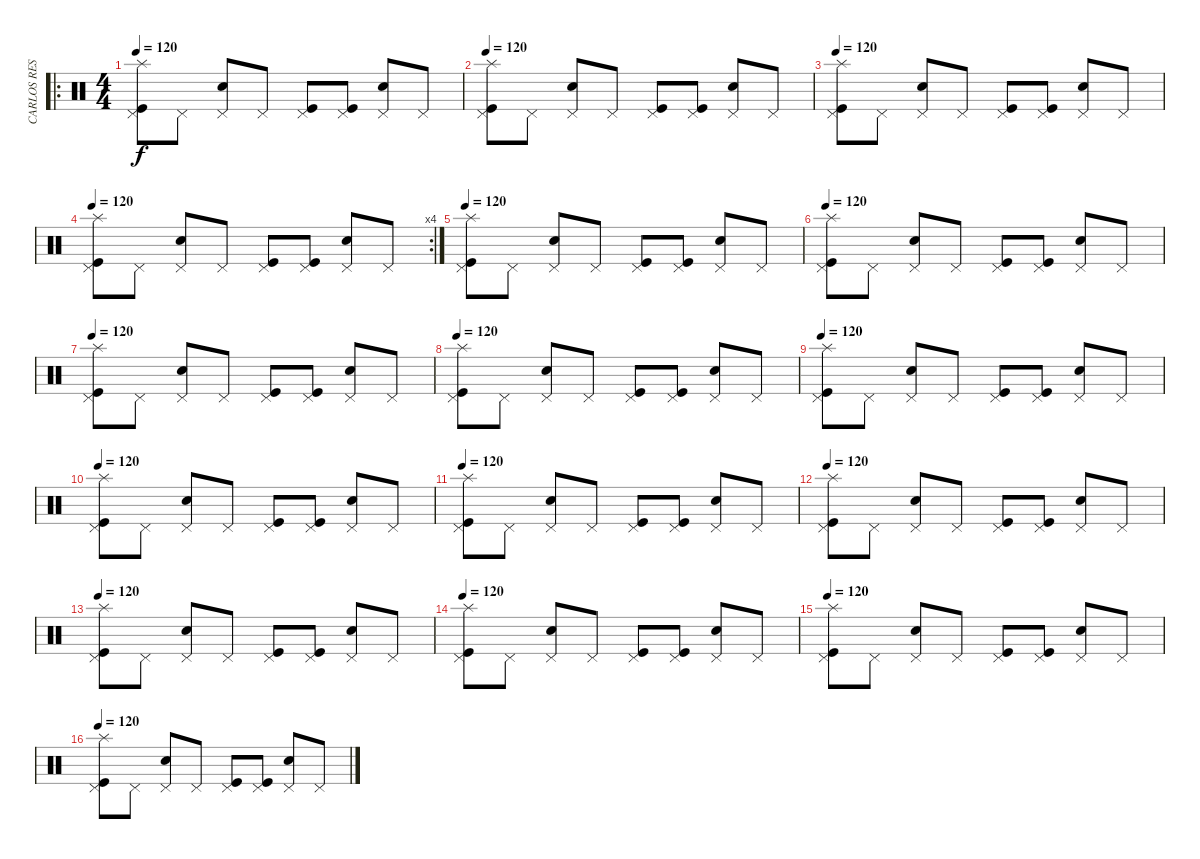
\track ("CARLOS RESTREPO DARK BATERIA" "CARLOS RES") {instrument percussion}
\staff {score}
\articulation defaults
\ro
\ts (4 4)
\tempo 120
\clef neutral
\ks c
("Pedal Hi-Hat (hit)" "Kick (hit)" "Splash (hit)").8{dy f} "Pedal Hi-Hat (hit)".8 ("Pedal Hi-Hat (hit)" "Snare (hit) 2").8 "Pedal Hi-Hat (hit)".8 ("Pedal Hi-Hat (hit)" "Kick (hit)").8 ("Pedal Hi-Hat (hit)" "Kick (hit)").8 ("Pedal Hi-Hat (hit)" "Snare (hit) 2").8 "Pedal Hi-Hat (hit)".8 |
\tempo 120
("Pedal Hi-Hat (hit)" "Kick (hit)" "Splash (hit)").8 "Pedal Hi-Hat (hit)".8 ("Pedal Hi-Hat (hit)" "Snare (hit) 2").8 "Pedal Hi-Hat (hit)".8 ("Pedal Hi-Hat (hit)" "Kick (hit)").8 ("Pedal Hi-Hat (hit)" "Kick (hit)").8 ("Pedal Hi-Hat (hit)" "Snare (hit) 2").8 "Pedal Hi-Hat (hit)".8 |
\tempo 120
("Pedal Hi-Hat (hit)" "Kick (hit)" "Splash (hit)").8 "Pedal Hi-Hat (hit)".8 ("Pedal Hi-Hat (hit)" "Snare (hit) 2").8 "Pedal Hi-Hat (hit)".8 ("Pedal Hi-Hat (hit)" "Kick (hit)").8 ("Pedal Hi-Hat (hit)" "Kick (hit)").8 ("Pedal Hi-Hat (hit)" "Snare (hit) 2").8 "Pedal Hi-Hat (hit)".8 |
\rc 4
\tempo 120
("Pedal Hi-Hat (hit)" "Kick (hit)" "Splash (hit)").8 "Pedal Hi-Hat (hit)".8 ("Pedal Hi-Hat (hit)" "Snare (hit) 2").8 "Pedal Hi-Hat (hit)".8 ("Pedal Hi-Hat (hit)" "Kick (hit)").8 ("Pedal Hi-Hat (hit)" "Kick (hit)").8 ("Pedal Hi-Hat (hit)" "Snare (hit) 2").8 "Pedal Hi-Hat (hit)".8 |
\tempo 120
("Pedal Hi-Hat (hit)" "Kick (hit)" "Splash (hit)").8 "Pedal Hi-Hat (hit)".8 ("Pedal Hi-Hat (hit)" "Snare (hit) 2").8 "Pedal Hi-Hat (hit)".8 ("Pedal Hi-Hat (hit)" "Kick (hit)").8 ("Pedal Hi-Hat (hit)" "Kick (hit)").8 ("Pedal Hi-Hat (hit)" "Snare (hit) 2").8 "Pedal Hi-Hat (hit)".8 |
\tempo 120
("Pedal Hi-Hat (hit)" "Kick (hit)" "Splash (hit)").8 "Pedal Hi-Hat (hit)".8 ("Pedal Hi-Hat (hit)" "Snare (hit) 2").8 "Pedal Hi-Hat (hit)".8 ("Pedal Hi-Hat (hit)" "Kick (hit)").8 ("Pedal Hi-Hat (hit)" "Kick (hit)").8 ("Pedal Hi-Hat (hit)" "Snare (hit) 2").8 "Pedal Hi-Hat (hit)".8 |
\tempo 120
("Pedal Hi-Hat (hit)" "Kick (hit)" "Splash (hit)").8 "Pedal Hi-Hat (hit)".8 ("Pedal Hi-Hat (hit)" "Snare (hit) 2").8 "Pedal Hi-Hat (hit)".8 ("Pedal Hi-Hat (hit)" "Kick (hit)").8 ("Pedal Hi-Hat (hit)" "Kick (hit)").8 ("Pedal Hi-Hat (hit)" "Snare (hit) 2").8 "Pedal Hi-Hat (hit)".8 |
\tempo 120
("Pedal Hi-Hat (hit)" "Kick (hit)" "Splash (hit)").8 "Pedal Hi-Hat (hit)".8 ("Pedal Hi-Hat (hit)" "Snare (hit) 2").8 "Pedal Hi-Hat (hit)".8 ("Pedal Hi-Hat (hit)" "Kick (hit)").8 ("Pedal Hi-Hat (hit)" "Kick (hit)").8 ("Pedal Hi-Hat (hit)" "Snare (hit) 2").8 "Pedal Hi-Hat (hit)".8 |
\tempo 120
("Pedal Hi-Hat (hit)" "Kick (hit)" "Splash (hit)").8 "Pedal Hi-Hat (hit)".8 ("Pedal Hi-Hat (hit)" "Snare (hit) 2").8 "Pedal Hi-Hat (hit)".8 ("Pedal Hi-Hat (hit)" "Kick (hit)").8 ("Pedal Hi-Hat (hit)" "Kick (hit)").8 ("Pedal Hi-Hat (hit)" "Snare (hit) 2").8 "Pedal Hi-Hat (hit)".8 |
\tempo 120
("Pedal Hi-Hat (hit)" "Kick (hit)" "Splash (hit)").8 "Pedal Hi-Hat (hit)".8 ("Pedal Hi-Hat (hit)" "Snare (hit) 2").8 "Pedal Hi-Hat (hit)".8 ("Pedal Hi-Hat (hit)" "Kick (hit)").8 ("Pedal Hi-Hat (hit)" "Kick (hit)").8 ("Pedal Hi-Hat (hit)" "Snare (hit) 2").8 "Pedal Hi-Hat (hit)".8 |
\tempo 120
("Pedal Hi-Hat (hit)" "Kick (hit)" "Splash (hit)").8 "Pedal Hi-Hat (hit)".8 ("Pedal Hi-Hat (hit)" "Snare (hit) 2").8 "Pedal Hi-Hat (hit)".8 ("Pedal Hi-Hat (hit)" "Kick (hit)").8 ("Pedal Hi-Hat (hit)" "Kick (hit)").8 ("Pedal Hi-Hat (hit)" "Snare (hit) 2").8 "Pedal Hi-Hat (hit)".8 |
\tempo 120
("Pedal Hi-Hat (hit)" "Kick (hit)" "Splash (hit)").8 "Pedal Hi-Hat (hit)".8 ("Pedal Hi-Hat (hit)" "Snare (hit) 2").8 "Pedal Hi-Hat (hit)".8 ("Pedal Hi-Hat (hit)" "Kick (hit)").8 ("Pedal Hi-Hat (hit)" "Kick (hit)").8 ("Pedal Hi-Hat (hit)" "Snare (hit) 2").8 "Pedal Hi-Hat (hit)".8 |
\tempo 120
("Pedal Hi-Hat (hit)" "Kick (hit)" "Splash (hit)").8 "Pedal Hi-Hat (hit)".8 ("Pedal Hi-Hat (hit)" "Snare (hit) 2").8 "Pedal Hi-Hat (hit)".8 ("Pedal Hi-Hat (hit)" "Kick (hit)").8 ("Pedal Hi-Hat (hit)" "Kick (hit)").8 ("Pedal Hi-Hat (hit)" "Snare (hit) 2").8 "Pedal Hi-Hat (hit)".8 |
\tempo 120
("Pedal Hi-Hat (hit)" "Kick (hit)" "Splash (hit)").8 "Pedal Hi-Hat (hit)".8 ("Pedal Hi-Hat (hit)" "Snare (hit) 2").8 "Pedal Hi-Hat (hit)".8 ("Pedal Hi-Hat (hit)" "Kick (hit)").8 ("Pedal Hi-Hat (hit)" "Kick (hit)").8 ("Pedal Hi-Hat (hit)" "Snare (hit) 2").8 "Pedal Hi-Hat (hit)".8 |
\tempo 120
("Pedal Hi-Hat (hit)" "Kick (hit)" "Splash (hit)").8 "Pedal Hi-Hat (hit)".8 ("Pedal Hi-Hat (hit)" "Snare (hit) 2").8 "Pedal Hi-Hat (hit)".8 ("Pedal Hi-Hat (hit)" "Kick (hit)").8 ("Pedal Hi-Hat (hit)" "Kick (hit)").8 ("Pedal Hi-Hat (hit)" "Snare (hit) 2").8 "Pedal Hi-Hat (hit)".8 |
\tempo 120
("Pedal Hi-Hat (hit)" "Kick (hit)" "Splash (hit)").8 "Pedal Hi-Hat (hit)".8 ("Pedal Hi-Hat (hit)" "Snare (hit) 2").8 "Pedal Hi-Hat (hit)".8 ("Pedal Hi-Hat (hit)" "Kick (hit)").8 ("Pedal Hi-Hat (hit)" "Kick (hit)").8 ("Pedal Hi-Hat (hit)" "Snare (hit) 2").8 "Pedal Hi-Hat (hit)".8
